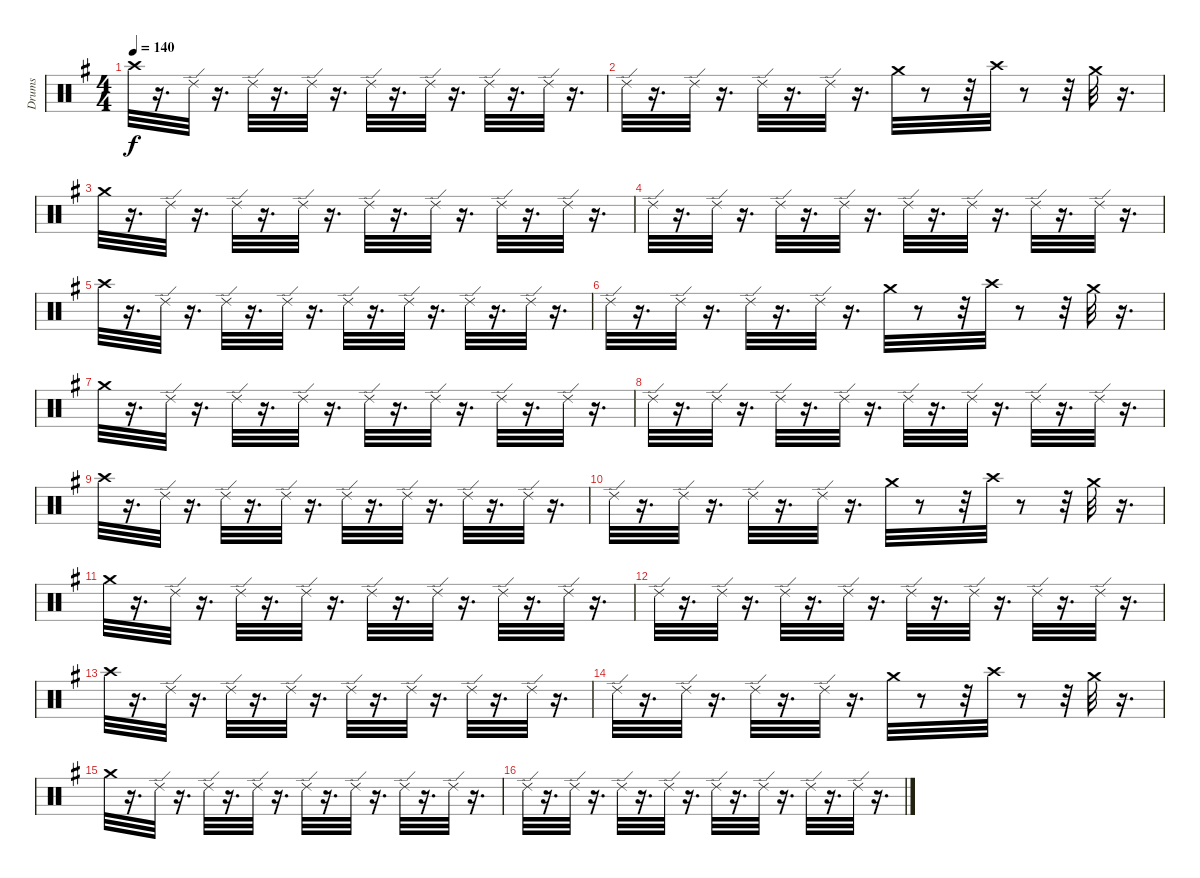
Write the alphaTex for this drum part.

\track ("Drums" "Drums") {instrument percussion}
\staff {score}
\articulation defaults
\ts (4 4)
\tempo 140
\clef neutral
\ks eminor "Crash high (hit)".32{dy f}
r.16{d} "Ride (edge) 2".32 r.16{d} "Ride (edge) 2".32 r.16{d} "Ride (edge) 2".32 r.16{d} "Ride (edge) 2".32 r.16{d} "Ride (edge) 2".32 r.16{d} "Ride (edge) 2".32 r.16{d} "Ride (edge) 2".32 r.16{d} |
"Ride (edge) 2".32 r.16{d} "Ride (edge) 2".32 r.16{d} "Ride (edge) 2".32 r.16{d} "Ride (edge) 2".32 r.16{d} "Crash medium (hit)".32 r.8 r.32 "Crash high (hit)".32 r.8 r.32 "Crash medium (hit)".32 r.16{d} |
"Crash medium (hit)".32 r.16{d} "Ride (edge) 2".32 r.16{d} "Ride (edge) 2".32 r.16{d} "Ride (edge) 2".32 r.16{d} "Ride (edge) 2".32 r.16{d} "Ride (edge) 2".32 r.16{d} "Ride (edge) 2".32 r.16{d} "Ride (edge) 2".32 r.16{d} |
"Ride (edge) 2".32 r.16{d} "Ride (edge) 2".32 r.16{d} "Ride (edge) 2".32 r.16{d} "Ride (edge) 2".32 r.16{d} "Ride (edge) 2".32 r.16{d} "Ride (edge) 2".32 r.16{d} "Ride (edge) 2".32 r.16{d} "Ride (edge) 2".32 r.16{d} |
"Crash high (hit)".32 r.16{d} "Ride (edge) 2".32 r.16{d} "Ride (edge) 2".32 r.16{d} "Ride (edge) 2".32 r.16{d} "Ride (edge) 2".32 r.16{d} "Ride (edge) 2".32 r.16{d} "Ride (edge) 2".32 r.16{d} "Ride (edge) 2".32 r.16{d} |
"Ride (edge) 2".32 r.16{d} "Ride (edge) 2".32 r.16{d} "Ride (edge) 2".32 r.16{d} "Ride (edge) 2".32 r.16{d} "Crash medium (hit)".32 r.8 r.32 "Crash high (hit)".32 r.8 r.32 "Crash medium (hit)".32 r.16{d} |
"Crash medium (hit)".32 r.16{d} "Ride (edge) 2".32 r.16{d} "Ride (edge) 2".32 r.16{d} "Ride (edge) 2".32 r.16{d} "Ride (edge) 2".32 r.16{d} "Ride (edge) 2".32 r.16{d} "Ride (edge) 2".32 r.16{d} "Ride (edge) 2".32 r.16{d} |
"Ride (edge) 2".32 r.16{d} "Ride (edge) 2".32 r.16{d} "Ride (edge) 2".32 r.16{d} "Ride (edge) 2".32 r.16{d} "Ride (edge) 2".32 r.16{d} "Ride (edge) 2".32 r.16{d} "Ride (edge) 2".32 r.16{d} "Ride (edge) 2".32 r.16{d} |
"Crash high (hit)".32 r.16{d} "Ride (edge) 2".32 r.16{d} "Ride (edge) 2".32 r.16{d} "Ride (edge) 2".32 r.16{d} "Ride (edge) 2".32 r.16{d} "Ride (edge) 2".32 r.16{d} "Ride (edge) 2".32 r.16{d} "Ride (edge) 2".32 r.16{d} |
"Ride (edge) 2".32 r.16{d} "Ride (edge) 2".32 r.16{d} "Ride (edge) 2".32 r.16{d} "Ride (edge) 2".32 r.16{d} "Crash medium (hit)".32 r.8 r.32 "Crash high (hit)".32 r.8 r.32 "Crash medium (hit)".32 r.16{d} |
"Crash medium (hit)".32 r.16{d} "Ride (edge) 2".32 r.16{d} "Ride (edge) 2".32 r.16{d} "Ride (edge) 2".32 r.16{d} "Ride (edge) 2".32 r.16{d} "Ride (edge) 2".32 r.16{d} "Ride (edge) 2".32 r.16{d} "Ride (edge) 2".32 r.16{d} |
"Ride (edge) 2".32 r.16{d} "Ride (edge) 2".32 r.16{d} "Ride (edge) 2".32 r.16{d} "Ride (edge) 2".32 r.16{d} "Ride (edge) 2".32 r.16{d} "Ride (edge) 2".32 r.16{d} "Ride (edge) 2".32 r.16{d} "Ride (edge) 2".32 r.16{d} |
"Crash high (hit)".32 r.16{d} "Ride (edge) 2".32 r.16{d} "Ride (edge) 2".32 r.16{d} "Ride (edge) 2".32 r.16{d} "Ride (edge) 2".32 r.16{d} "Ride (edge) 2".32 r.16{d} "Ride (edge) 2".32 r.16{d} "Ride (edge) 2".32 r.16{d} |
"Ride (edge) 2".32 r.16{d} "Ride (edge) 2".32 r.16{d} "Ride (edge) 2".32 r.16{d} "Ride (edge) 2".32 r.16{d} "Crash medium (hit)".32 r.8 r.32 "Crash high (hit)".32 r.8 r.32 "Crash medium (hit)".32 r.16{d} |
"Crash medium (hit)".32 r.16{d} "Ride (edge) 2".32 r.16{d} "Ride (edge) 2".32 r.16{d} "Ride (edge) 2".32 r.16{d} "Ride (edge) 2".32 r.16{d} "Ride (edge) 2".32 r.16{d} "Ride (edge) 2".32 r.16{d} "Ride (edge) 2".32 r.16{d} |
"Ride (edge) 2".32 r.16{d} "Ride (edge) 2".32 r.16{d} "Ride (edge) 2".32 r.16{d} "Ride (edge) 2".32 r.16{d} "Ride (edge) 2".32 r.16{d} "Ride (edge) 2".32 r.16{d} "Ride (edge) 2".32 r.16{d} "Ride (edge) 2".32 r.16{d}
